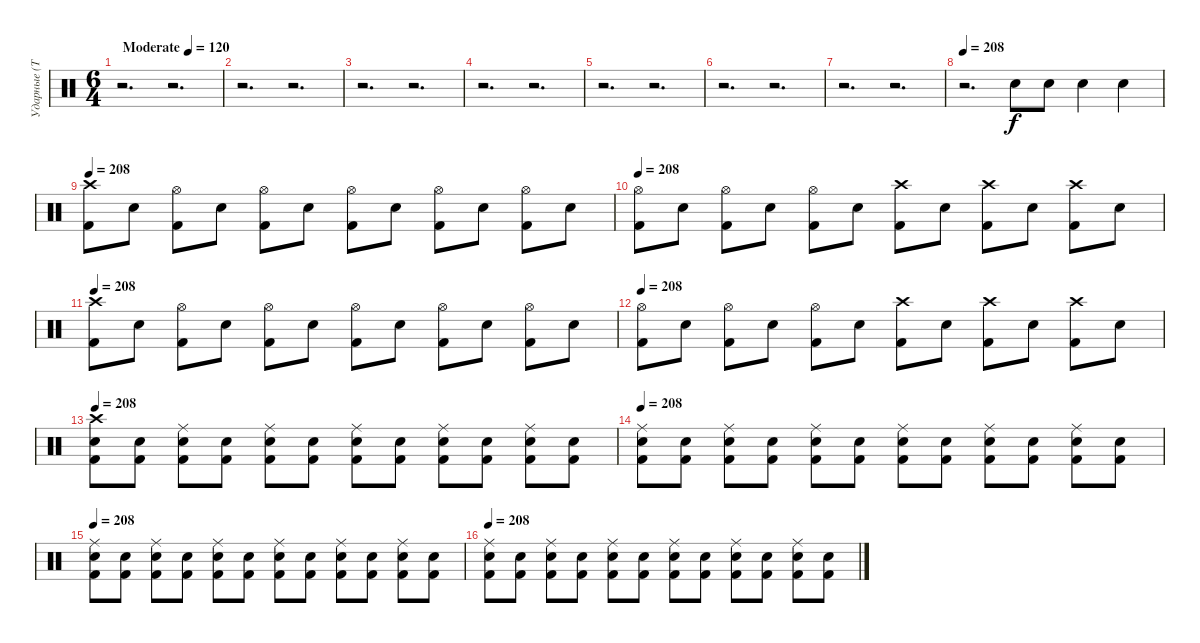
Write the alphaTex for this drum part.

\track ("Ударные (Тьодальв)" "Ударные (Т") {instrument percussion}
\staff {score}
\articulation defaults
\ts (6 4)
\tempo (120 "Moderate")
\clef neutral
\ks c
r.2{d dy f} r.2{d} |
r.2{d} r.2{d} |
r.2{d} r.2{d} |
r.2{d} r.2{d} |
r.2{d} r.2{d} |
r.2{d} r.2{d} |
r.2{d} r.2{d} |
\tempo 208
r.2{d} "Snare (hit) 2".8 "Snare (hit) 2".8 "Snare (hit) 2".4 "Snare (hit) 2".4 |
\tempo 208
("Kick (hit) 2" "Crash high (hit)").8 "Snare (hit) 2".8 ("Kick (hit) 2" "Hi-Hat (open)").8 "Snare (hit) 2".8 ("Kick (hit) 2" "Hi-Hat (open)").8 "Snare (hit) 2".8 ("Kick (hit) 2" "Hi-Hat (open)").8 "Snare (hit) 2".8 ("Kick (hit) 2" "Hi-Hat (open)").8 "Snare (hit) 2".8 ("Kick (hit) 2" "Hi-Hat (open)").8 "Snare (hit) 2".8 |
\tempo 208
("Kick (hit) 2" "Hi-Hat (open)").8 "Snare (hit) 2".8 ("Kick (hit) 2" "Hi-Hat (open)").8 "Snare (hit) 2".8 ("Kick (hit) 2" "Hi-Hat (open)").8 "Snare (hit) 2".8 ("Kick (hit) 2" "Crash high (hit)").8 "Snare (hit) 2".8 ("Kick (hit) 2" "Crash high (hit)").8 "Snare (hit) 2".8 ("Kick (hit) 2" "Crash high (hit)").8 "Snare (hit) 2".8 |
\tempo 208
("Kick (hit) 2" "Crash high (hit)").8 "Snare (hit) 2".8 ("Kick (hit) 2" "Hi-Hat (open)").8 "Snare (hit) 2".8 ("Kick (hit) 2" "Hi-Hat (open)").8 "Snare (hit) 2".8 ("Kick (hit) 2" "Hi-Hat (open)").8 "Snare (hit) 2".8 ("Kick (hit) 2" "Hi-Hat (open)").8 "Snare (hit) 2".8 ("Kick (hit) 2" "Hi-Hat (open)").8 "Snare (hit) 2".8 |
\tempo 208
("Kick (hit) 2" "Hi-Hat (open)").8 "Snare (hit) 2".8 ("Kick (hit) 2" "Hi-Hat (open)").8 "Snare (hit) 2".8 ("Kick (hit) 2" "Hi-Hat (open)").8 "Snare (hit) 2".8 ("Kick (hit) 2" "Crash high (hit)").8 "Snare (hit) 2".8 ("Kick (hit) 2" "Crash high (hit)").8 "Snare (hit) 2".8 ("Kick (hit) 2" "Crash high (hit)").8 "Snare (hit) 2".8 |
\tempo 208
("Kick (hit) 2" "Snare (hit) 2" "Crash high (hit)").8 ("Kick (hit) 2" "Snare (hit) 2").8 ("Kick (hit) 2" "Snare (hit) 2" "Ride (middle)").8 ("Kick (hit) 2" "Snare (hit) 2").8 ("Kick (hit) 2" "Snare (hit) 2" "Ride (middle)").8 ("Kick (hit) 2" "Snare (hit) 2").8 ("Kick (hit) 2" "Snare (hit) 2" "Ride (middle)").8 ("Kick (hit) 2" "Snare (hit) 2").8 ("Kick (hit) 2" "Snare (hit) 2" "Ride (middle)").8 ("Kick (hit) 2" "Snare (hit) 2").8 ("Kick (hit) 2" "Snare (hit) 2" "Ride (middle)").8 ("Kick (hit) 2" "Snare (hit) 2").8 |
\tempo 208
("Kick (hit) 2" "Snare (hit) 2" "Ride (middle)").8 ("Kick (hit) 2" "Snare (hit) 2").8 ("Kick (hit) 2" "Snare (hit) 2" "Ride (middle)").8 ("Kick (hit) 2" "Snare (hit) 2").8 ("Kick (hit) 2" "Snare (hit) 2" "Ride (middle)").8 ("Kick (hit) 2" "Snare (hit) 2").8 ("Kick (hit) 2" "Snare (hit) 2" "Ride (middle)").8 ("Kick (hit) 2" "Snare (hit) 2").8 ("Kick (hit) 2" "Snare (hit) 2" "Ride (middle)").8 ("Kick (hit) 2" "Snare (hit) 2").8 ("Kick (hit) 2" "Snare (hit) 2" "Ride (middle)").8 ("Kick (hit) 2" "Snare (hit) 2").8 |
\tempo 208
("Kick (hit) 2" "Snare (hit) 2" "Ride (middle)").8 ("Kick (hit) 2" "Snare (hit) 2").8 ("Kick (hit) 2" "Snare (hit) 2" "Ride (middle)").8 ("Kick (hit) 2" "Snare (hit) 2").8 ("Kick (hit) 2" "Snare (hit) 2" "Ride (middle)").8 ("Kick (hit) 2" "Snare (hit) 2").8 ("Kick (hit) 2" "Snare (hit) 2" "Ride (middle)").8 ("Kick (hit) 2" "Snare (hit) 2").8 ("Kick (hit) 2" "Snare (hit) 2" "Ride (middle)").8 ("Kick (hit) 2" "Snare (hit) 2").8 ("Kick (hit) 2" "Snare (hit) 2" "Ride (middle)").8 ("Kick (hit) 2" "Snare (hit) 2").8 |
\tempo 208
("Kick (hit) 2" "Snare (hit) 2" "Ride (middle)").8 ("Kick (hit) 2" "Snare (hit) 2").8 ("Kick (hit) 2" "Snare (hit) 2" "Ride (middle)").8 ("Kick (hit) 2" "Snare (hit) 2").8 ("Kick (hit) 2" "Snare (hit) 2" "Ride (middle)").8 ("Kick (hit) 2" "Snare (hit) 2").8 ("Kick (hit) 2" "Snare (hit) 2" "Ride (middle)").8 ("Kick (hit) 2" "Snare (hit) 2").8 ("Kick (hit) 2" "Snare (hit) 2" "Ride (middle)").8 ("Kick (hit) 2" "Snare (hit) 2").8 ("Kick (hit) 2" "Snare (hit) 2" "Ride (middle)").8 ("Kick (hit) 2" "Snare (hit) 2").8
